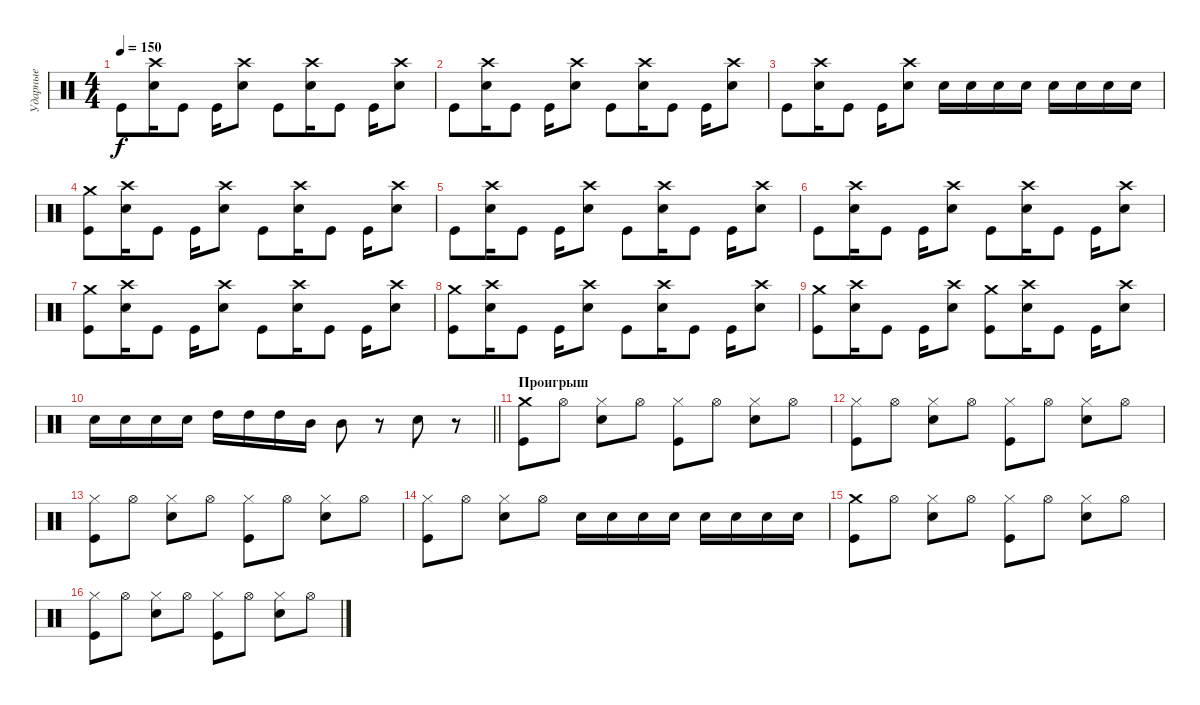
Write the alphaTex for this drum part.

\track ("Ударные" "Ударные") {instrument percussion}
\staff {score}
\articulation defaults
\ts (4 4)
\tempo 150
\clef neutral
\ks c "Kick (hit)".8{dy f}
("Crash high (hit)" "Electric Snare (hit)").16 "Kick (hit)".8 "Kick (hit)".16 ("Crash high (hit)" "Electric Snare (hit)").8 "Kick (hit)".8 ("Crash high (hit)" "Electric Snare (hit)").16 "Kick (hit)".8 "Kick (hit)".16 ("Crash high (hit)" "Electric Snare (hit)").8 |
"Kick (hit)".8 ("Crash high (hit)" "Electric Snare (hit)").16 "Kick (hit)".8 "Kick (hit)".16 ("Crash high (hit)" "Electric Snare (hit)").8 "Kick (hit)".8 ("Crash high (hit)" "Electric Snare (hit)").16 "Kick (hit)".8 "Kick (hit)".16 ("Crash high (hit)" "Electric Snare (hit)").8 |
"Kick (hit)".8 ("Crash high (hit)" "Electric Snare (hit)").16 "Kick (hit)".8 "Kick (hit)".16 ("Crash high (hit)" "Electric Snare (hit)").8 "Electric Snare (hit)".16 "Electric Snare (hit)".16 "Electric Snare (hit)".16 "Electric Snare (hit)".16 "Electric Snare (hit)".16 "Electric Snare (hit)".16 "Electric Snare (hit)".16 "Electric Snare (hit)".16 |
("Crash medium (hit)" "Kick (hit)").8 ("Crash high (hit)" "Electric Snare (hit)").16 "Kick (hit)".8 "Kick (hit)".16 ("Crash high (hit)" "Electric Snare (hit)").8 "Kick (hit)".8 ("Crash high (hit)" "Electric Snare (hit)").16 "Kick (hit)".8 "Kick (hit)".16 ("Crash high (hit)" "Electric Snare (hit)").8 |
"Kick (hit)".8 ("Crash high (hit)" "Electric Snare (hit)").16 "Kick (hit)".8 "Kick (hit)".16 ("Crash high (hit)" "Electric Snare (hit)").8 "Kick (hit)".8 ("Crash high (hit)" "Electric Snare (hit)").16 "Kick (hit)".8 "Kick (hit)".16 ("Crash high (hit)" "Electric Snare (hit)").8 |
"Kick (hit)".8 ("Crash high (hit)" "Electric Snare (hit)").16 "Kick (hit)".8 "Kick (hit)".16 ("Crash high (hit)" "Electric Snare (hit)").8 "Kick (hit)".8 ("Crash high (hit)" "Electric Snare (hit)").16 "Kick (hit)".8 "Kick (hit)".16 ("Crash high (hit)" "Electric Snare (hit)").8 |
("Crash medium (hit)" "Kick (hit)").8 ("Crash high (hit)" "Electric Snare (hit)").16 "Kick (hit)".8 "Kick (hit)".16 ("Crash high (hit)" "Electric Snare (hit)").8 "Kick (hit)".8 ("Crash high (hit)" "Electric Snare (hit)").16 "Kick (hit)".8 "Kick (hit)".16 ("Crash high (hit)" "Electric Snare (hit)").8 |
("Crash medium (hit)" "Kick (hit)").8 ("Crash high (hit)" "Electric Snare (hit)").16 "Kick (hit)".8 "Kick (hit)".16 ("Crash high (hit)" "Electric Snare (hit)").8 "Kick (hit)".8 ("Crash high (hit)" "Electric Snare (hit)").16 "Kick (hit)".8 "Kick (hit)".16 ("Crash high (hit)" "Electric Snare (hit)").8 |
("Crash medium (hit)" "Kick (hit)").8 ("Crash high (hit)" "Electric Snare (hit)").16 "Kick (hit)".8 "Kick (hit)".16 ("Crash high (hit)" "Electric Snare (hit)").8 ("Crash medium (hit)" "Kick (hit)").8 ("Crash high (hit)" "Electric Snare (hit)").16 "Kick (hit)".8 "Kick (hit)".16 ("Crash high (hit)" "Electric Snare (hit)").8 |
\barLineRight lightlight "Electric Snare (hit)".16 "Electric Snare (hit)".16 "Electric Snare (hit)".16 "Electric Snare (hit)".16 "High Tom (hit)".16 "High Tom (hit)".16 "High Tom (hit)".16 "Mid Tom (hit)".16 "Mid Tom (hit)".8
r.8 "Electric Snare (hit)".8 r.8 |
\section ("" "Проигрыш")
("Crash medium (hit)" "Kick (hit)").8 "Hi-Hat (open)".8 ("Hi-Hat (closed)" "Electric Snare (hit)").8 "Hi-Hat (open)".8 ("Hi-Hat (closed)" "Kick (hit)").8 "Hi-Hat (open)".8 ("Hi-Hat (closed)" "Electric Snare (hit)").8 "Hi-Hat (open)".8 |
("Hi-Hat (closed)" "Kick (hit)").8 "Hi-Hat (open)".8 ("Hi-Hat (closed)" "Electric Snare (hit)").8 "Hi-Hat (open)".8 ("Hi-Hat (closed)" "Kick (hit)").8 "Hi-Hat (open)".8 ("Hi-Hat (closed)" "Electric Snare (hit)").8 "Hi-Hat (open)".8 |
("Hi-Hat (closed)" "Kick (hit)").8 "Hi-Hat (open)".8 ("Hi-Hat (closed)" "Electric Snare (hit)").8 "Hi-Hat (open)".8 ("Hi-Hat (closed)" "Kick (hit)").8 "Hi-Hat (open)".8 ("Hi-Hat (closed)" "Electric Snare (hit)").8 "Hi-Hat (open)".8 |
("Hi-Hat (closed)" "Kick (hit)").8 "Hi-Hat (open)".8 ("Hi-Hat (closed)" "Electric Snare (hit)").8 "Hi-Hat (open)".8 "Electric Snare (hit)".16 "Electric Snare (hit)".16 "Electric Snare (hit)".16 "Electric Snare (hit)".16 "Electric Snare (hit)".16 "Electric Snare (hit)".16 "Electric Snare (hit)".16 "Electric Snare (hit)".16 |
("Crash medium (hit)" "Kick (hit)").8 "Hi-Hat (open)".8 ("Hi-Hat (closed)" "Electric Snare (hit)").8 "Hi-Hat (open)".8 ("Hi-Hat (closed)" "Kick (hit)").8 "Hi-Hat (open)".8 ("Hi-Hat (closed)" "Electric Snare (hit)").8 "Hi-Hat (open)".8 |
("Hi-Hat (closed)" "Kick (hit)").8 "Hi-Hat (open)".8 ("Hi-Hat (closed)" "Electric Snare (hit)").8 "Hi-Hat (open)".8 ("Hi-Hat (closed)" "Kick (hit)").8 "Hi-Hat (open)".8 ("Hi-Hat (closed)" "Electric Snare (hit)").8 "Hi-Hat (open)".8
